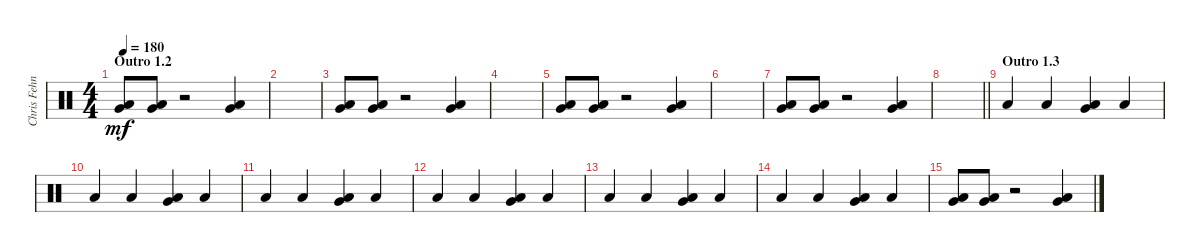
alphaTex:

\track ("Chris Fehn" "Chris Fehn") {instrument percussion}
\staff {score}
\articulation defaults
\ts (4 4)
\section ("" "Outro 1.2")
\tempo 180
\clef neutral
\ks c
("Very Low Tom (hit)" "Low Floor Tom (hit)").8{dy mf} ("Very Low Tom (hit)" "Low Floor Tom (hit)").8 r.2 ("Very Low Tom (hit)" "Low Floor Tom (hit)").4 |
|
("Very Low Tom (hit)" "Low Floor Tom (hit)").8 ("Very Low Tom (hit)" "Low Floor Tom (hit)").8 r.2 ("Very Low Tom (hit)" "Low Floor Tom (hit)").4 |
|
("Very Low Tom (hit)" "Low Floor Tom (hit)").8 ("Very Low Tom (hit)" "Low Floor Tom (hit)").8 r.2 ("Very Low Tom (hit)" "Low Floor Tom (hit)").4 |
|
("Very Low Tom (hit)" "Low Floor Tom (hit)").8 ("Very Low Tom (hit)" "Low Floor Tom (hit)").8 r.2 ("Very Low Tom (hit)" "Low Floor Tom (hit)").4 |
\barLineRight lightlight
|
\section ("" "Outro 1.3")
"Low Floor Tom (hit)".4 "Low Floor Tom (hit)".4 ("Very Low Tom (hit)" "Low Floor Tom (hit)").4 "Low Floor Tom (hit)".4 |
"Low Floor Tom (hit)".4 "Low Floor Tom (hit)".4 ("Very Low Tom (hit)" "Low Floor Tom (hit)").4 "Low Floor Tom (hit)".4 |
"Low Floor Tom (hit)".4 "Low Floor Tom (hit)".4 ("Very Low Tom (hit)" "Low Floor Tom (hit)").4 "Low Floor Tom (hit)".4 |
"Low Floor Tom (hit)".4 "Low Floor Tom (hit)".4 ("Very Low Tom (hit)" "Low Floor Tom (hit)").4 "Low Floor Tom (hit)".4 |
"Low Floor Tom (hit)".4 "Low Floor Tom (hit)".4 ("Very Low Tom (hit)" "Low Floor Tom (hit)").4 "Low Floor Tom (hit)".4 |
"Low Floor Tom (hit)".4 "Low Floor Tom (hit)".4 ("Very Low Tom (hit)" "Low Floor Tom (hit)").4 "Low Floor Tom (hit)".4 |
("Very Low Tom (hit)" "Low Floor Tom (hit)").8 ("Very Low Tom (hit)" "Low Floor Tom (hit)").8 r.2 ("Very Low Tom (hit)" "Low Floor Tom (hit)").4
